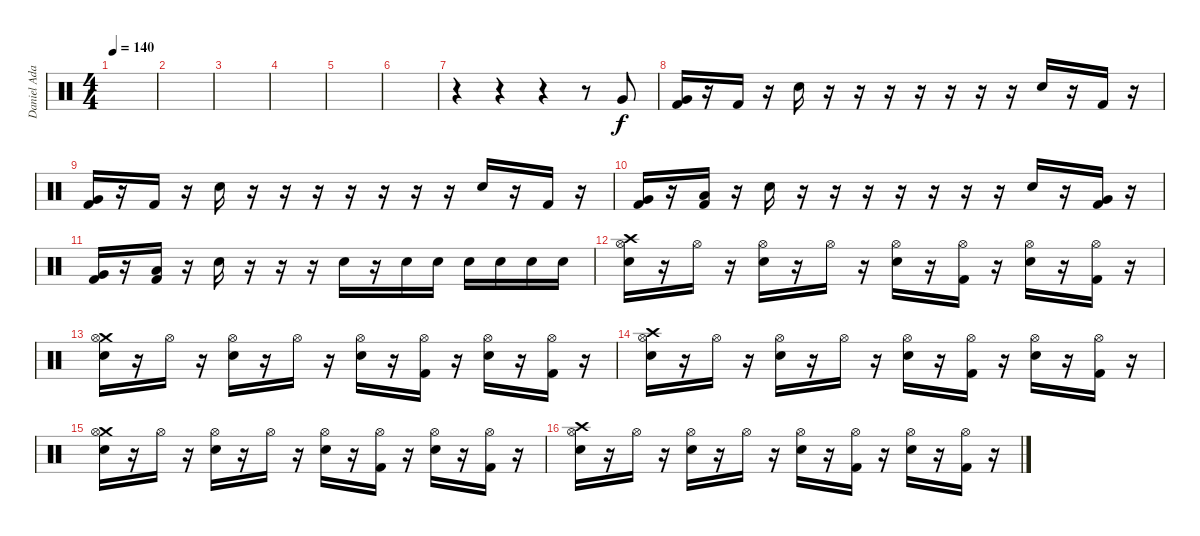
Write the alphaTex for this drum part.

\track ("Daniel Adair" "Daniel Ada") {instrument percussion}
\staff {score}
\articulation defaults
\ts (4 4)
\tempo 140
\clef neutral
\ks c
|
|
|
|
|
|
r.4 r.4 r.4 r.8 "Very Low Tom (hit)".8 |
("Very Low Tom (hit)" "Kick (hit) 2").16 r.16 "Kick (hit) 2".16 r.16 "Snare (hit) 2".16 r.16 r.16 r.16 r.16 r.16 r.16 r.16 "Snare (hit) 2".16 r.16 "Kick (hit) 2".16 r.16 |
("Very Low Tom (hit)" "Kick (hit) 2").16 r.16 "Kick (hit) 2".16 r.16 "Snare (hit) 2".16 r.16 r.16 r.16 r.16 r.16 r.16 r.16 "Snare (hit) 2".16 r.16 "Kick (hit) 2".16 r.16 |
("Very Low Tom (hit)" "Kick (hit) 2").16 r.16 ("Low Floor Tom (hit)" "Kick (hit) 2").16 r.16 "Snare (hit) 2".16 r.16 r.16 r.16 r.16 r.16 r.16 r.16 "Snare (hit) 2".16 r.16 ("Very Low Tom (hit)" "Kick (hit) 2").16 r.16 |
("Very Low Tom (hit)" "Kick (hit) 2").16 r.16 ("Low Floor Tom (hit)" "Kick (hit) 2").16 r.16 "Snare (hit) 2".16 r.16 r.16 r.16 "Snare (hit) 2".16 r.16 "Snare (hit) 2".16 "Snare (hit) 2".16 "Snare (hit) 2".16 "Snare (hit) 2".16 "Snare (hit) 2".16 "Snare (hit) 2".16 |
("Crash high (hit)" "Hi-Hat (open)" "Snare (hit) 2").16 r.16 "Hi-Hat (open)".16 r.16 ("Hi-Hat (open)" "Snare (hit) 2").16 r.16 "Hi-Hat (open)".16 r.16 ("Hi-Hat (open)" "Snare (hit) 2").16 r.16 ("Hi-Hat (open)" "Kick (hit) 2").16 r.16 ("Hi-Hat (open)" "Snare (hit) 2").16 r.16 ("Hi-Hat (open)" "Kick (hit) 2").16 r.16 |
("Crash medium (hit)" "Hi-Hat (open)" "Snare (hit) 2").16 r.16 "Hi-Hat (open)".16 r.16 ("Hi-Hat (open)" "Snare (hit) 2").16 r.16 "Hi-Hat (open)".16 r.16 ("Hi-Hat (open)" "Snare (hit) 2").16 r.16 ("Hi-Hat (open)" "Kick (hit) 2").16 r.16 ("Hi-Hat (open)" "Snare (hit) 2").16 r.16 ("Hi-Hat (open)" "Kick (hit) 2").16 r.16 |
("Crash high (hit)" "Hi-Hat (open)" "Snare (hit) 2").16 r.16 "Hi-Hat (open)".16 r.16 ("Hi-Hat (open)" "Snare (hit) 2").16 r.16 "Hi-Hat (open)".16 r.16 ("Hi-Hat (open)" "Snare (hit) 2").16 r.16 ("Hi-Hat (open)" "Kick (hit) 2").16 r.16 ("Hi-Hat (open)" "Snare (hit) 2").16 r.16 ("Hi-Hat (open)" "Kick (hit) 2").16 r.16 |
("Crash medium (hit)" "Hi-Hat (open)" "Snare (hit) 2").16 r.16 "Hi-Hat (open)".16 r.16 ("Hi-Hat (open)" "Snare (hit) 2").16 r.16 "Hi-Hat (open)".16 r.16 ("Hi-Hat (open)" "Snare (hit) 2").16 r.16 ("Hi-Hat (open)" "Kick (hit) 2").16 r.16 ("Hi-Hat (open)" "Snare (hit) 2").16 r.16 ("Hi-Hat (open)" "Kick (hit) 2").16 r.16 |
("Crash high (hit)" "Hi-Hat (open)" "Snare (hit) 2").16 r.16 "Hi-Hat (open)".16 r.16 ("Hi-Hat (open)" "Snare (hit) 2").16 r.16 "Hi-Hat (open)".16 r.16 ("Hi-Hat (open)" "Snare (hit) 2").16 r.16 ("Hi-Hat (open)" "Kick (hit) 2").16 r.16 ("Hi-Hat (open)" "Snare (hit) 2").16 r.16 ("Hi-Hat (open)" "Kick (hit) 2").16 r.16
